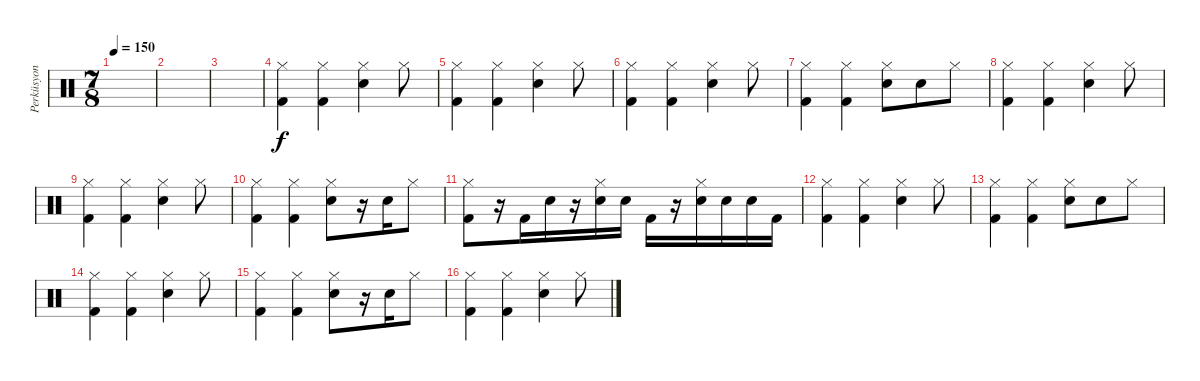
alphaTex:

\track ("Perküsyon" "Perküsyon") {instrument percussion}
\staff {score}
\articulation defaults
\ts (7 8)
\tempo 150
\clef neutral
\ks c
|
|
|
("Hi-Hat (closed)" "Kick (hit) 2").4 ("Hi-Hat (closed)" "Kick (hit) 2").4 ("Hi-Hat (closed)" "Electric Snare (hit)").4 "Hi-Hat (closed)".8 |
("Hi-Hat (closed)" "Kick (hit) 2").4 ("Hi-Hat (closed)" "Kick (hit) 2").4 ("Hi-Hat (closed)" "Electric Snare (hit)").4 "Hi-Hat (closed)".8 |
("Hi-Hat (closed)" "Kick (hit) 2").4 ("Hi-Hat (closed)" "Kick (hit) 2").4 ("Hi-Hat (closed)" "Electric Snare (hit)").4 "Hi-Hat (closed)".8 |
("Hi-Hat (closed)" "Kick (hit) 2").4 ("Hi-Hat (closed)" "Kick (hit) 2").4 ("Hi-Hat (closed)" "Electric Snare (hit)").8 "Electric Snare (hit)".8 "Hi-Hat (closed)".8 |
("Hi-Hat (closed)" "Kick (hit) 2").4 ("Hi-Hat (closed)" "Kick (hit) 2").4 ("Hi-Hat (closed)" "Electric Snare (hit)").4 "Hi-Hat (closed)".8 |
("Hi-Hat (closed)" "Kick (hit) 2").4 ("Hi-Hat (closed)" "Kick (hit) 2").4 ("Hi-Hat (closed)" "Electric Snare (hit)").4 "Hi-Hat (closed)".8 |
("Hi-Hat (closed)" "Kick (hit) 2").4 ("Hi-Hat (closed)" "Kick (hit) 2").4 ("Hi-Hat (closed)" "Electric Snare (hit)").8 r.16 "Electric Snare (hit)".16 "Hi-Hat (closed)".8 |
("Hi-Hat (closed)" "Kick (hit) 2").8 r.16 "Kick (hit) 2".16 "Electric Snare (hit)".16 r.16 ("Hi-Hat (closed)" "Electric Snare (hit)").16 "Electric Snare (hit)".16 "Kick (hit) 2".16 r.16 ("Hi-Hat (closed)" "Electric Snare (hit)").16 "Electric Snare (hit)".16 "Electric Snare (hit)".16 "Kick (hit) 2".16 |
("Hi-Hat (closed)" "Kick (hit) 2").4 ("Hi-Hat (closed)" "Kick (hit) 2").4 ("Hi-Hat (closed)" "Electric Snare (hit)").4 "Hi-Hat (closed)".8 |
("Hi-Hat (closed)" "Kick (hit) 2").4 ("Hi-Hat (closed)" "Kick (hit) 2").4 ("Hi-Hat (closed)" "Electric Snare (hit)").8 "Electric Snare (hit)".8 "Hi-Hat (closed)".8 |
("Hi-Hat (closed)" "Kick (hit) 2").4 ("Hi-Hat (closed)" "Kick (hit) 2").4 ("Hi-Hat (closed)" "Electric Snare (hit)").4 "Hi-Hat (closed)".8 |
("Hi-Hat (closed)" "Kick (hit) 2").4 ("Hi-Hat (closed)" "Kick (hit) 2").4 ("Hi-Hat (closed)" "Electric Snare (hit)").8 r.16 "Electric Snare (hit)".16 "Hi-Hat (closed)".8 |
("Hi-Hat (closed)" "Kick (hit) 2").4 ("Hi-Hat (closed)" "Kick (hit) 2").4 ("Hi-Hat (closed)" "Electric Snare (hit)").4 "Hi-Hat (closed)".8
